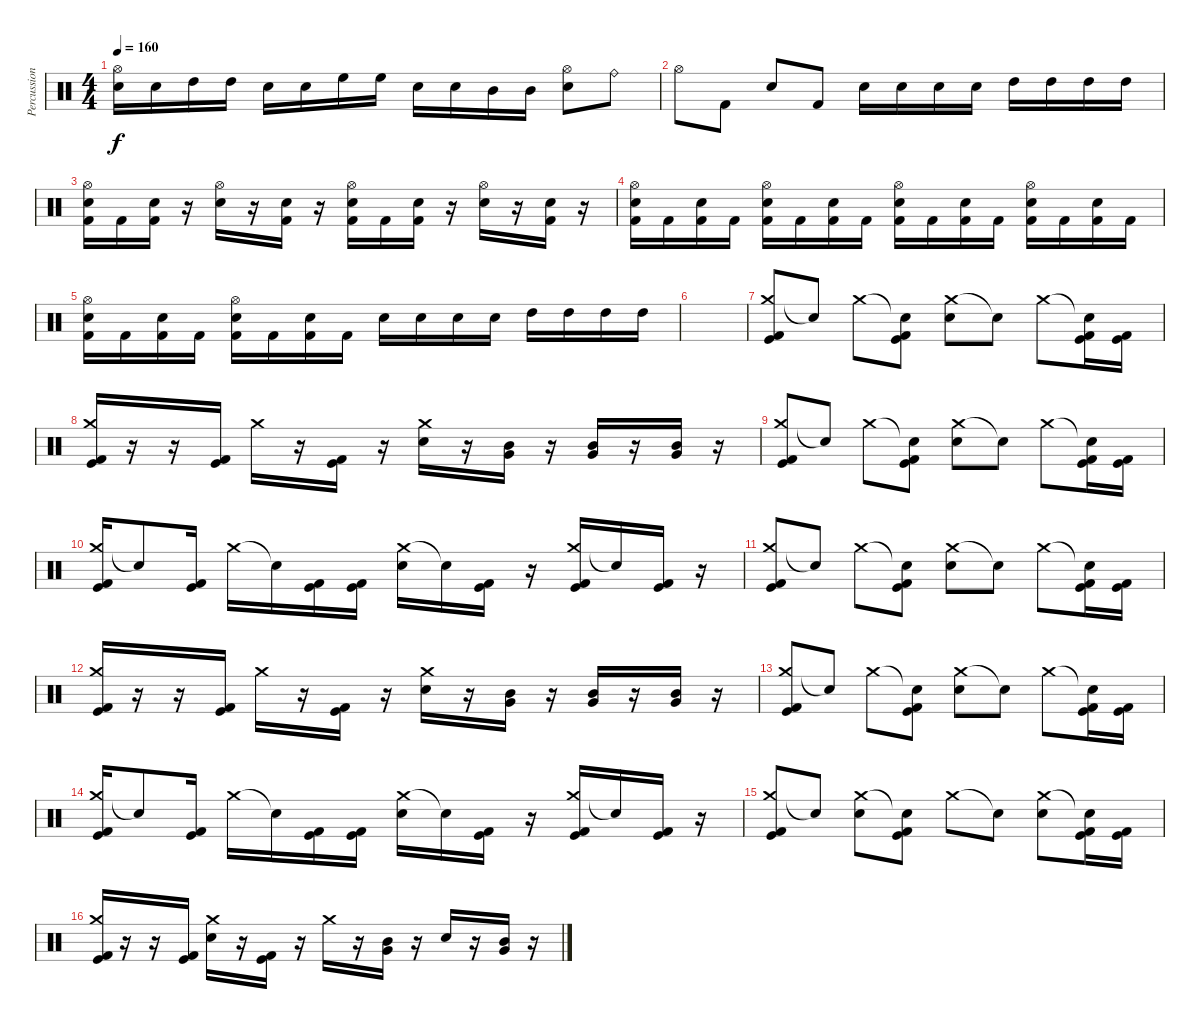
\track ("Percussion" "Percussion") {instrument percussion}
\staff {score}
\articulation defaults
\ts (4 4)
\tempo 160
\clef neutral
\ks c
("Hi-Hat (open)" "Snare (hit) 2").16{dy f} "Snare (hit) 2".16 "High Tom (hit)".16 "High Tom (hit)".16 "Snare (hit) 2".16 "Snare (hit) 2".16 "High Floor Tom (hit)".16 "High Floor Tom (hit)".16 "Snare (hit) 2".16 "Snare (hit) 2".16 "Mid Tom (hit)".16 "Mid Tom (hit)".16 ("Hi-Hat (open)" "Snare (hit) 2").8 "Ride (bell)".8 |
"Hi-Hat (open)".8 "Kick (hit) 2".8 "Snare (hit) 2".8 "Kick (hit) 2".8 "Snare (hit) 2".16 "Snare (hit) 2".16 "Snare (hit) 2".16 "Snare (hit) 2".16 "High Tom (hit)".16 "High Tom (hit)".16 "High Tom (hit)".16 "High Tom (hit)".16 |
("Hi-Hat (open)" "Snare (hit) 2" "Kick (hit) 2").16 "Kick (hit) 2".16 ("Snare (hit) 2" "Kick (hit) 2").16 r.16 ("Hi-Hat (open)" "Snare (hit) 2").16 r.16 ("Snare (hit) 2" "Kick (hit) 2").16 r.16 ("Hi-Hat (open)" "Snare (hit) 2" "Kick (hit) 2").16 "Kick (hit) 2".16 ("Snare (hit) 2" "Kick (hit) 2").16 r.16 ("Hi-Hat (open)" "Snare (hit) 2").16 r.16 ("Snare (hit) 2" "Kick (hit) 2").16 r.16 |
("Hi-Hat (open)" "Snare (hit) 2" "Kick (hit) 2").16 "Kick (hit) 2".16 ("Snare (hit) 2" "Kick (hit) 2").16 "Kick (hit) 2".16 ("Hi-Hat (open)" "Snare (hit) 2" "Kick (hit) 2").16 "Kick (hit) 2".16 ("Snare (hit) 2" "Kick (hit) 2").16 "Kick (hit) 2".16 ("Hi-Hat (open)" "Snare (hit) 2" "Kick (hit) 2").16 "Kick (hit) 2".16 ("Snare (hit) 2" "Kick (hit) 2").16 "Kick (hit) 2".16 ("Hi-Hat (open)" "Snare (hit) 2" "Kick (hit) 2").16 "Kick (hit) 2".16 ("Snare (hit) 2" "Kick (hit) 2").16 "Kick (hit) 2".16 |
("Hi-Hat (open)" "Snare (hit) 2" "Kick (hit) 2").16 "Kick (hit) 2".16 ("Snare (hit) 2" "Kick (hit) 2").16 "Kick (hit) 2".16 ("Hi-Hat (open)" "Snare (hit) 2" "Kick (hit) 2").16 "Kick (hit) 2".16 ("Snare (hit) 2" "Kick (hit) 2").16 "Kick (hit) 2".16 "Snare (hit) 2".16 "Snare (hit) 2".16 "Snare (hit) 2".16 "Snare (hit) 2".16 "High Tom (hit)".16 "High Tom (hit)".16 "High Tom (hit)".16 "High Tom (hit)".16 |
|
("Crash medium (hit)" "Kick (hit)" "Kick (hit) 2").8 "Snare (hit)"{t}.8 "Crash medium (hit)".8 ("Snare (hit)"{t} "Kick (hit)" "Kick (hit) 2").8 ("Crash medium (hit)" "Electric Snare (hit)").8 "Snare (hit)"{t}.8 "Crash medium (hit)".8 ("Snare (hit)"{t} "Kick (hit)" "Kick (hit) 2").16 ("Kick (hit)" "Kick (hit) 2").16 |
("Crash medium (hit)" "Kick (hit)" "Kick (hit) 2").16 r.16 r.16 ("Kick (hit)" "Kick (hit) 2").16 "Crash medium (hit)".16 r.16 ("Kick (hit)" "Kick (hit) 2").16 r.16 ("Crash medium (hit)" "Electric Snare (hit)").16 r.16 ("Mid Tom (hit)" "Very Low Tom (hit)").16 r.16 ("Mid Tom (hit)" "Very Low Tom (hit)").16 r.16 ("Mid Tom (hit)" "Very Low Tom (hit)").16 r.16 |
("Crash medium (hit)" "Kick (hit)" "Kick (hit) 2").8 "Snare (hit)"{t}.8 "Crash medium (hit)".8 ("Snare (hit)"{t} "Kick (hit)" "Kick (hit) 2").8 ("Crash medium (hit)" "Electric Snare (hit)").8 "Snare (hit)"{t}.8 "Crash medium (hit)".8 ("Snare (hit)"{t} "Kick (hit)" "Kick (hit) 2").16 ("Kick (hit)" "Kick (hit) 2").16 |
("Crash medium (hit)" "Kick (hit)" "Kick (hit) 2").16 "Snare (hit)"{t}.8 ("Kick (hit)" "Kick (hit) 2").16 "Crash medium (hit)".16 "Snare (hit)"{t}.16 ("Kick (hit)" "Kick (hit) 2").16 ("Kick (hit)" "Kick (hit) 2").16 ("Crash medium (hit)" "Electric Snare (hit)").16 "Snare (hit)"{t}.16 ("Kick (hit)" "Kick (hit) 2").16 r.16 ("Crash medium (hit)" "Kick (hit)" "Kick (hit) 2").16 "Snare (hit)"{t}.16 ("Kick (hit)" "Kick (hit) 2").16 r.16 |
("Crash medium (hit)" "Kick (hit)" "Kick (hit) 2").8 "Snare (hit)"{t}.8 "Crash medium (hit)".8 ("Snare (hit)"{t} "Kick (hit)" "Kick (hit) 2").8 ("Crash medium (hit)" "Electric Snare (hit)").8 "Snare (hit)"{t}.8 "Crash medium (hit)".8 ("Snare (hit)"{t} "Kick (hit)" "Kick (hit) 2").16 ("Kick (hit)" "Kick (hit) 2").16 |
("Crash medium (hit)" "Kick (hit)" "Kick (hit) 2").16 r.16 r.16 ("Kick (hit)" "Kick (hit) 2").16 "Crash medium (hit)".16 r.16 ("Kick (hit)" "Kick (hit) 2").16 r.16 ("Crash medium (hit)" "Electric Snare (hit)").16 r.16 ("Mid Tom (hit)" "Very Low Tom (hit)").16 r.16 ("Mid Tom (hit)" "Very Low Tom (hit)").16 r.16 ("Mid Tom (hit)" "Very Low Tom (hit)").16 r.16 |
("Crash medium (hit)" "Kick (hit)" "Kick (hit) 2").8 "Snare (hit)"{t}.8 "Crash medium (hit)".8 ("Snare (hit)"{t} "Kick (hit)" "Kick (hit) 2").8 ("Crash medium (hit)" "Electric Snare (hit)").8 "Snare (hit)"{t}.8 "Crash medium (hit)".8 ("Snare (hit)"{t} "Kick (hit)" "Kick (hit) 2").16 ("Kick (hit)" "Kick (hit) 2").16 |
("Crash medium (hit)" "Kick (hit)" "Kick (hit) 2").16 "Snare (hit)"{t}.8 ("Kick (hit)" "Kick (hit) 2").16 "Crash medium (hit)".16 "Snare (hit)"{t}.16 ("Kick (hit)" "Kick (hit) 2").16 ("Kick (hit)" "Kick (hit) 2").16 ("Crash medium (hit)" "Electric Snare (hit)").16 "Snare (hit)"{t}.16 ("Kick (hit)" "Kick (hit) 2").16 r.16 ("Crash medium (hit)" "Kick (hit)" "Kick (hit) 2").16 "Snare (hit)"{t}.16 ("Kick (hit)" "Kick (hit) 2").16 r.16 |
("Crash medium (hit)" "Kick (hit)" "Kick (hit) 2").8 "Snare (hit)"{t}.8 ("Crash medium (hit)" "Snare (hit) 2").8 ("Snare (hit)"{t} "Kick (hit)" "Kick (hit) 2").8 "Crash medium (hit)".8 "Snare (hit)"{t}.8 ("Crash medium (hit)" "Snare (hit) 2").8 ("Snare (hit)"{t} "Kick (hit)" "Kick (hit) 2").16 ("Kick (hit)" "Kick (hit) 2").16 |
("Crash medium (hit)" "Kick (hit)" "Kick (hit) 2").16 r.16 r.16 ("Kick (hit)" "Kick (hit) 2").16 ("Crash medium (hit)" "Snare (hit) 2").16 r.16 ("Kick (hit)" "Kick (hit) 2").16 r.16 "Crash medium (hit)".16 r.16 ("Mid Tom (hit)" "Very Low Tom (hit)").16 r.16 "Snare (hit) 2".16 r.16 ("Mid Tom (hit)" "Very Low Tom (hit)").16 r.16
